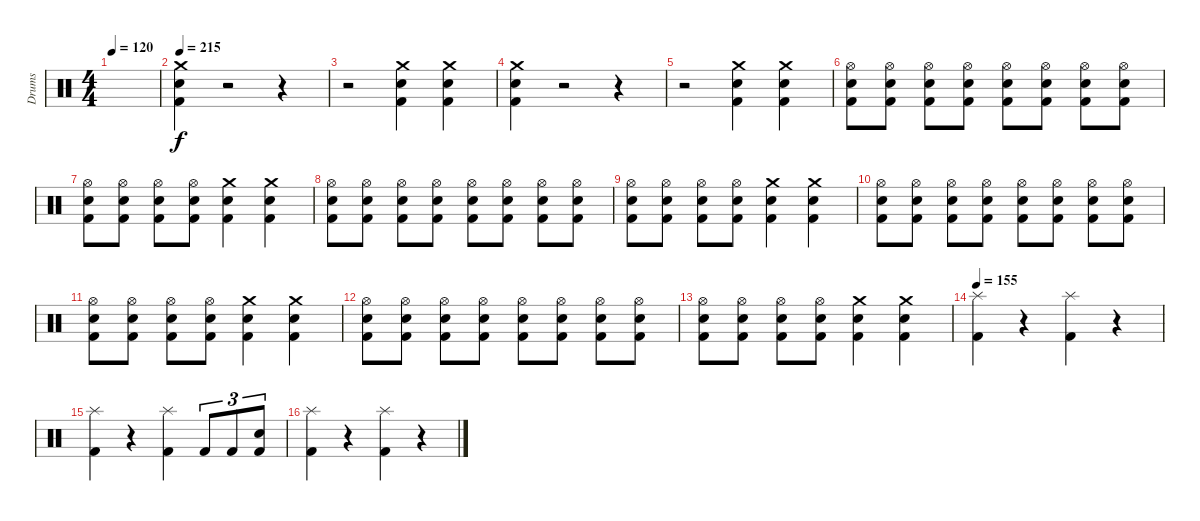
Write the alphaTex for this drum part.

\track ("Drums" "Drums") {instrument percussion}
\staff {score}
\articulation defaults
\ts (4 4)
\tempo 120
\clef neutral
\ks c
|
\tempo 215
("Kick (hit) 2" "Snare (hit) 2" "Crash medium (hit)").4 r.2 r.4 |
r.2 ("Kick (hit) 2" "Snare (hit) 2" "Crash medium (hit)").4 ("Kick (hit) 2" "Snare (hit) 2" "Crash medium (hit)").4 |
("Kick (hit) 2" "Snare (hit) 2" "Crash medium (hit)").4 r.2 r.4 |
r.2 ("Kick (hit) 2" "Snare (hit) 2" "Crash medium (hit)").4 ("Kick (hit) 2" "Snare (hit) 2" "Crash medium (hit)").4 |
("Kick (hit) 2" "Snare (hit) 2" "Hi-Hat (open)").8 ("Kick (hit) 2" "Snare (hit) 2" "Hi-Hat (open)").8 ("Kick (hit) 2" "Snare (hit) 2" "Hi-Hat (open)").8 ("Kick (hit) 2" "Snare (hit) 2" "Hi-Hat (open)").8 ("Kick (hit) 2" "Snare (hit) 2" "Hi-Hat (open)").8 ("Kick (hit) 2" "Snare (hit) 2" "Hi-Hat (open)").8 ("Kick (hit) 2" "Snare (hit) 2" "Hi-Hat (open)").8 ("Kick (hit) 2" "Snare (hit) 2" "Hi-Hat (open)").8 |
("Kick (hit) 2" "Snare (hit) 2" "Hi-Hat (open)").8 ("Kick (hit) 2" "Snare (hit) 2" "Hi-Hat (open)").8 ("Kick (hit) 2" "Snare (hit) 2" "Hi-Hat (open)").8 ("Kick (hit) 2" "Snare (hit) 2" "Hi-Hat (open)").8 ("Kick (hit) 2" "Snare (hit) 2" "Crash medium (hit)").4 ("Kick (hit) 2" "Snare (hit) 2" "Crash medium (hit)").4 |
("Kick (hit) 2" "Snare (hit) 2" "Hi-Hat (open)").8 ("Kick (hit) 2" "Snare (hit) 2" "Hi-Hat (open)").8 ("Kick (hit) 2" "Snare (hit) 2" "Hi-Hat (open)").8 ("Kick (hit) 2" "Snare (hit) 2" "Hi-Hat (open)").8 ("Kick (hit) 2" "Snare (hit) 2" "Hi-Hat (open)").8 ("Kick (hit) 2" "Snare (hit) 2" "Hi-Hat (open)").8 ("Kick (hit) 2" "Snare (hit) 2" "Hi-Hat (open)").8 ("Kick (hit) 2" "Snare (hit) 2" "Hi-Hat (open)").8 |
("Kick (hit) 2" "Snare (hit) 2" "Hi-Hat (open)").8 ("Kick (hit) 2" "Snare (hit) 2" "Hi-Hat (open)").8 ("Kick (hit) 2" "Snare (hit) 2" "Hi-Hat (open)").8 ("Kick (hit) 2" "Snare (hit) 2" "Hi-Hat (open)").8 ("Kick (hit) 2" "Snare (hit) 2" "Crash medium (hit)").4 ("Kick (hit) 2" "Snare (hit) 2" "Crash medium (hit)").4 |
("Kick (hit) 2" "Snare (hit) 2" "Hi-Hat (open)").8 ("Kick (hit) 2" "Snare (hit) 2" "Hi-Hat (open)").8 ("Kick (hit) 2" "Snare (hit) 2" "Hi-Hat (open)").8 ("Kick (hit) 2" "Snare (hit) 2" "Hi-Hat (open)").8 ("Kick (hit) 2" "Snare (hit) 2" "Hi-Hat (open)").8 ("Kick (hit) 2" "Snare (hit) 2" "Hi-Hat (open)").8 ("Kick (hit) 2" "Snare (hit) 2" "Hi-Hat (open)").8 ("Kick (hit) 2" "Snare (hit) 2" "Hi-Hat (open)").8 |
("Kick (hit) 2" "Snare (hit) 2" "Hi-Hat (open)").8 ("Kick (hit) 2" "Snare (hit) 2" "Hi-Hat (open)").8 ("Kick (hit) 2" "Snare (hit) 2" "Hi-Hat (open)").8 ("Kick (hit) 2" "Snare (hit) 2" "Hi-Hat (open)").8 ("Kick (hit) 2" "Snare (hit) 2" "Crash medium (hit)").4 ("Kick (hit) 2" "Snare (hit) 2" "Crash medium (hit)").4 |
("Kick (hit) 2" "Snare (hit) 2" "Hi-Hat (open)").8 ("Kick (hit) 2" "Snare (hit) 2" "Hi-Hat (open)").8 ("Kick (hit) 2" "Snare (hit) 2" "Hi-Hat (open)").8 ("Kick (hit) 2" "Snare (hit) 2" "Hi-Hat (open)").8 ("Kick (hit) 2" "Snare (hit) 2" "Hi-Hat (open)").8 ("Kick (hit) 2" "Snare (hit) 2" "Hi-Hat (open)").8 ("Kick (hit) 2" "Snare (hit) 2" "Hi-Hat (open)").8 ("Kick (hit) 2" "Snare (hit) 2" "Hi-Hat (open)").8 |
("Kick (hit) 2" "Snare (hit) 2" "Hi-Hat (open)").8 ("Kick (hit) 2" "Snare (hit) 2" "Hi-Hat (open)").8 ("Kick (hit) 2" "Snare (hit) 2" "Hi-Hat (open)").8 ("Kick (hit) 2" "Snare (hit) 2" "Hi-Hat (open)").8 ("Kick (hit) 2" "Snare (hit) 2" "Crash medium (hit)").4 ("Kick (hit) 2" "Snare (hit) 2" "Crash medium (hit)").4 |
\tempo 155
("Kick (hit) 2" "Splash (hit)").4 r.4 ("Kick (hit) 2" "Splash (hit)").4 r.4 |
("Kick (hit) 2" "Splash (hit)").4 r.4 ("Kick (hit) 2" "Splash (hit)").4 "Kick (hit) 2".8{tu (3 2)} "Kick (hit) 2".8{tu (3 2)} ("Kick (hit) 2" "Snare (hit) 2").8{tu (3 2)} |
("Kick (hit) 2" "Splash (hit)").4 r.4 ("Kick (hit) 2" "Splash (hit)").4 r.4
